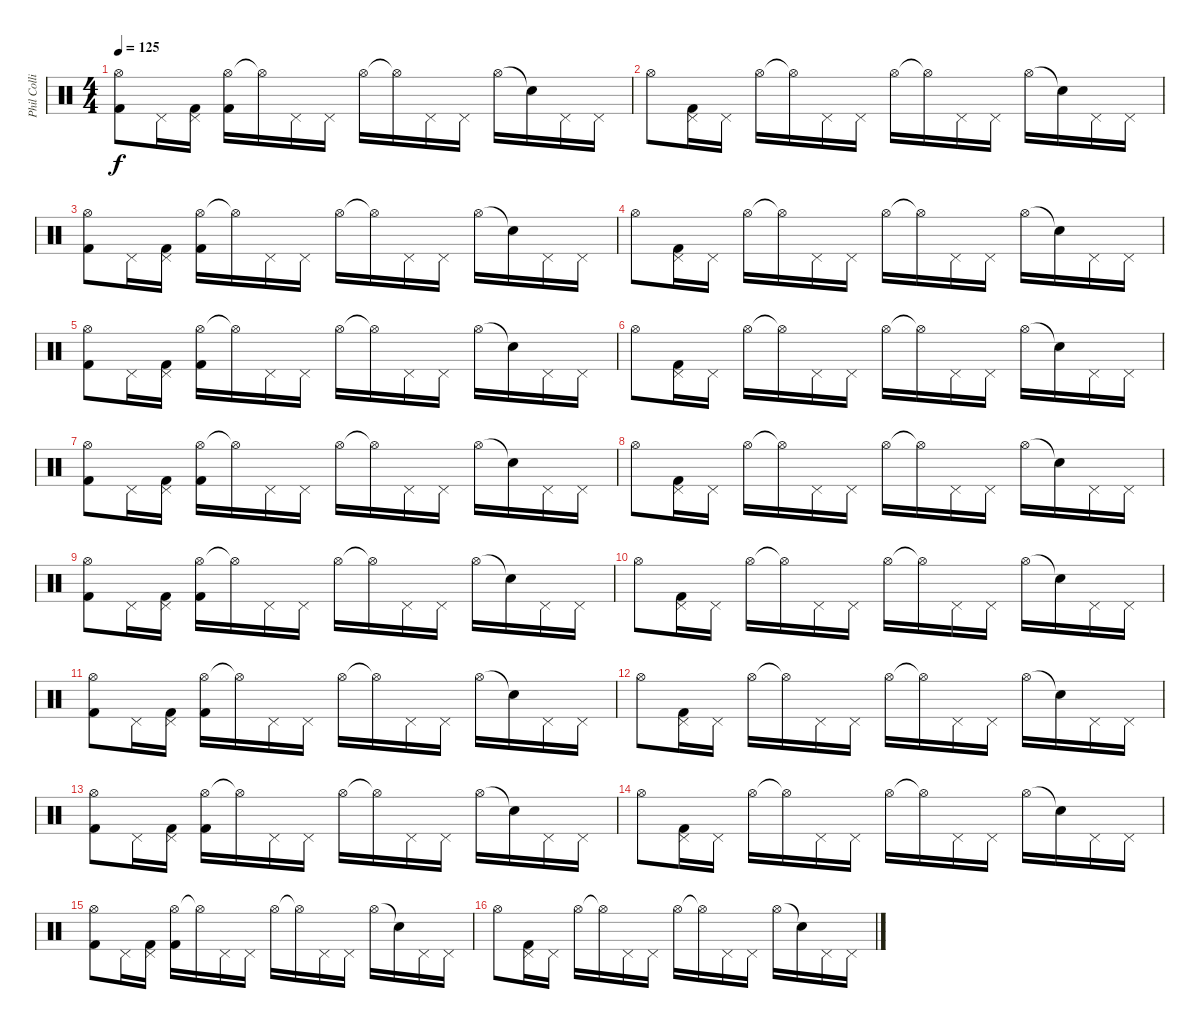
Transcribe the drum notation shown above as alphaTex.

\track ("Phil Collins (drums)" "Phil Colli") {instrument percussion}
\staff {score}
\articulation defaults
\ts (4 4)
\tempo 125
\clef neutral
\ks c
("Hi-Hat (open)" "Kick (hit) 2").8{dy f} "Pedal Hi-Hat (hit)".16 ("Pedal Hi-Hat (hit)" "Kick (hit) 2").16 ("Hi-Hat (open)" "Kick (hit) 2").16 "Hi-Hat (open)"{t}.16 "Pedal Hi-Hat (hit)".16 "Pedal Hi-Hat (hit)".16 "Hi-Hat (open)".16 "Hi-Hat (open)"{t}.16 "Pedal Hi-Hat (hit)".16 "Pedal Hi-Hat (hit)".16 "Hi-Hat (open)".16 "Snare (hit)"{t}.16 "Pedal Hi-Hat (hit)".16 "Pedal Hi-Hat (hit)".16 |
"Hi-Hat (open)".8 ("Pedal Hi-Hat (hit)" "Kick (hit) 2").16 "Pedal Hi-Hat (hit)".16 "Hi-Hat (open)".16 "Hi-Hat (open)"{t}.16 "Pedal Hi-Hat (hit)".16 "Pedal Hi-Hat (hit)".16 "Hi-Hat (open)".16 "Hi-Hat (open)"{t}.16 "Pedal Hi-Hat (hit)".16 "Pedal Hi-Hat (hit)".16 "Hi-Hat (open)".16 "Snare (hit)"{t}.16 "Pedal Hi-Hat (hit)".16 "Pedal Hi-Hat (hit)".16 |
("Hi-Hat (open)" "Kick (hit) 2").8 "Pedal Hi-Hat (hit)".16 ("Pedal Hi-Hat (hit)" "Kick (hit) 2").16 ("Hi-Hat (open)" "Kick (hit) 2").16 "Hi-Hat (open)"{t}.16 "Pedal Hi-Hat (hit)".16 "Pedal Hi-Hat (hit)".16 "Hi-Hat (open)".16 "Hi-Hat (open)"{t}.16 "Pedal Hi-Hat (hit)".16 "Pedal Hi-Hat (hit)".16 "Hi-Hat (open)".16 "Snare (hit)"{t}.16 "Pedal Hi-Hat (hit)".16 "Pedal Hi-Hat (hit)".16 |
"Hi-Hat (open)".8 ("Pedal Hi-Hat (hit)" "Kick (hit) 2").16 "Pedal Hi-Hat (hit)".16 "Hi-Hat (open)".16 "Hi-Hat (open)"{t}.16 "Pedal Hi-Hat (hit)".16 "Pedal Hi-Hat (hit)".16 "Hi-Hat (open)".16 "Hi-Hat (open)"{t}.16 "Pedal Hi-Hat (hit)".16 "Pedal Hi-Hat (hit)".16 "Hi-Hat (open)".16 "Snare (hit)"{t}.16 "Pedal Hi-Hat (hit)".16 "Pedal Hi-Hat (hit)".16 |
("Hi-Hat (open)" "Kick (hit) 2").8 "Pedal Hi-Hat (hit)".16 ("Pedal Hi-Hat (hit)" "Kick (hit) 2").16 ("Hi-Hat (open)" "Kick (hit) 2").16 "Hi-Hat (open)"{t}.16 "Pedal Hi-Hat (hit)".16 "Pedal Hi-Hat (hit)".16 "Hi-Hat (open)".16 "Hi-Hat (open)"{t}.16 "Pedal Hi-Hat (hit)".16 "Pedal Hi-Hat (hit)".16 "Hi-Hat (open)".16 "Snare (hit)"{t}.16 "Pedal Hi-Hat (hit)".16 "Pedal Hi-Hat (hit)".16 |
"Hi-Hat (open)".8 ("Pedal Hi-Hat (hit)" "Kick (hit) 2").16 "Pedal Hi-Hat (hit)".16 "Hi-Hat (open)".16 "Hi-Hat (open)"{t}.16 "Pedal Hi-Hat (hit)".16 "Pedal Hi-Hat (hit)".16 "Hi-Hat (open)".16 "Hi-Hat (open)"{t}.16 "Pedal Hi-Hat (hit)".16 "Pedal Hi-Hat (hit)".16 "Hi-Hat (open)".16 "Snare (hit)"{t}.16 "Pedal Hi-Hat (hit)".16 "Pedal Hi-Hat (hit)".16 |
("Hi-Hat (open)" "Kick (hit) 2").8 "Pedal Hi-Hat (hit)".16 ("Pedal Hi-Hat (hit)" "Kick (hit) 2").16 ("Hi-Hat (open)" "Kick (hit) 2").16 "Hi-Hat (open)"{t}.16 "Pedal Hi-Hat (hit)".16 "Pedal Hi-Hat (hit)".16 "Hi-Hat (open)".16 "Hi-Hat (open)"{t}.16 "Pedal Hi-Hat (hit)".16 "Pedal Hi-Hat (hit)".16 "Hi-Hat (open)".16 "Snare (hit)"{t}.16 "Pedal Hi-Hat (hit)".16 "Pedal Hi-Hat (hit)".16 |
"Hi-Hat (open)".8 ("Pedal Hi-Hat (hit)" "Kick (hit) 2").16 "Pedal Hi-Hat (hit)".16 "Hi-Hat (open)".16 "Hi-Hat (open)"{t}.16 "Pedal Hi-Hat (hit)".16 "Pedal Hi-Hat (hit)".16 "Hi-Hat (open)".16 "Hi-Hat (open)"{t}.16 "Pedal Hi-Hat (hit)".16 "Pedal Hi-Hat (hit)".16 "Hi-Hat (open)".16 "Snare (hit)"{t}.16 "Pedal Hi-Hat (hit)".16 "Pedal Hi-Hat (hit)".16 |
("Hi-Hat (open)" "Kick (hit) 2").8 "Pedal Hi-Hat (hit)".16 ("Pedal Hi-Hat (hit)" "Kick (hit) 2").16 ("Hi-Hat (open)" "Kick (hit) 2").16 "Hi-Hat (open)"{t}.16 "Pedal Hi-Hat (hit)".16 "Pedal Hi-Hat (hit)".16 "Hi-Hat (open)".16 "Hi-Hat (open)"{t}.16 "Pedal Hi-Hat (hit)".16 "Pedal Hi-Hat (hit)".16 "Hi-Hat (open)".16 "Snare (hit)"{t}.16 "Pedal Hi-Hat (hit)".16 "Pedal Hi-Hat (hit)".16 |
"Hi-Hat (open)".8 ("Pedal Hi-Hat (hit)" "Kick (hit) 2").16 "Pedal Hi-Hat (hit)".16 "Hi-Hat (open)".16 "Hi-Hat (open)"{t}.16 "Pedal Hi-Hat (hit)".16 "Pedal Hi-Hat (hit)".16 "Hi-Hat (open)".16 "Hi-Hat (open)"{t}.16 "Pedal Hi-Hat (hit)".16 "Pedal Hi-Hat (hit)".16 "Hi-Hat (open)".16 "Snare (hit)"{t}.16 "Pedal Hi-Hat (hit)".16 "Pedal Hi-Hat (hit)".16 |
("Hi-Hat (open)" "Kick (hit) 2").8 "Pedal Hi-Hat (hit)".16 ("Pedal Hi-Hat (hit)" "Kick (hit) 2").16 ("Hi-Hat (open)" "Kick (hit) 2").16 "Hi-Hat (open)"{t}.16 "Pedal Hi-Hat (hit)".16 "Pedal Hi-Hat (hit)".16 "Hi-Hat (open)".16 "Hi-Hat (open)"{t}.16 "Pedal Hi-Hat (hit)".16 "Pedal Hi-Hat (hit)".16 "Hi-Hat (open)".16 "Snare (hit)"{t}.16 "Pedal Hi-Hat (hit)".16 "Pedal Hi-Hat (hit)".16 |
"Hi-Hat (open)".8 ("Pedal Hi-Hat (hit)" "Kick (hit) 2").16 "Pedal Hi-Hat (hit)".16 "Hi-Hat (open)".16 "Hi-Hat (open)"{t}.16 "Pedal Hi-Hat (hit)".16 "Pedal Hi-Hat (hit)".16 "Hi-Hat (open)".16 "Hi-Hat (open)"{t}.16 "Pedal Hi-Hat (hit)".16 "Pedal Hi-Hat (hit)".16 "Hi-Hat (open)".16 "Snare (hit)"{t}.16 "Pedal Hi-Hat (hit)".16 "Pedal Hi-Hat (hit)".16 |
("Hi-Hat (open)" "Kick (hit) 2").8 "Pedal Hi-Hat (hit)".16 ("Pedal Hi-Hat (hit)" "Kick (hit) 2").16 ("Hi-Hat (open)" "Kick (hit) 2").16 "Hi-Hat (open)"{t}.16 "Pedal Hi-Hat (hit)".16 "Pedal Hi-Hat (hit)".16 "Hi-Hat (open)".16 "Hi-Hat (open)"{t}.16 "Pedal Hi-Hat (hit)".16 "Pedal Hi-Hat (hit)".16 "Hi-Hat (open)".16 "Snare (hit)"{t}.16 "Pedal Hi-Hat (hit)".16 "Pedal Hi-Hat (hit)".16 |
"Hi-Hat (open)".8 ("Pedal Hi-Hat (hit)" "Kick (hit) 2").16 "Pedal Hi-Hat (hit)".16 "Hi-Hat (open)".16 "Hi-Hat (open)"{t}.16 "Pedal Hi-Hat (hit)".16 "Pedal Hi-Hat (hit)".16 "Hi-Hat (open)".16 "Hi-Hat (open)"{t}.16 "Pedal Hi-Hat (hit)".16 "Pedal Hi-Hat (hit)".16 "Hi-Hat (open)".16 "Snare (hit)"{t}.16 "Pedal Hi-Hat (hit)".16 "Pedal Hi-Hat (hit)".16 |
("Hi-Hat (open)" "Kick (hit) 2").8 "Pedal Hi-Hat (hit)".16 ("Pedal Hi-Hat (hit)" "Kick (hit) 2").16 ("Hi-Hat (open)" "Kick (hit) 2").16 "Hi-Hat (open)"{t}.16 "Pedal Hi-Hat (hit)".16 "Pedal Hi-Hat (hit)".16 "Hi-Hat (open)".16 "Hi-Hat (open)"{t}.16 "Pedal Hi-Hat (hit)".16 "Pedal Hi-Hat (hit)".16 "Hi-Hat (open)".16 "Snare (hit)"{t}.16 "Pedal Hi-Hat (hit)".16 "Pedal Hi-Hat (hit)".16 |
"Hi-Hat (open)".8 ("Pedal Hi-Hat (hit)" "Kick (hit) 2").16 "Pedal Hi-Hat (hit)".16 "Hi-Hat (open)".16 "Hi-Hat (open)"{t}.16 "Pedal Hi-Hat (hit)".16 "Pedal Hi-Hat (hit)".16 "Hi-Hat (open)".16 "Hi-Hat (open)"{t}.16 "Pedal Hi-Hat (hit)".16 "Pedal Hi-Hat (hit)".16 "Hi-Hat (open)".16 "Snare (hit)"{t}.16 "Pedal Hi-Hat (hit)".16 "Pedal Hi-Hat (hit)".16
